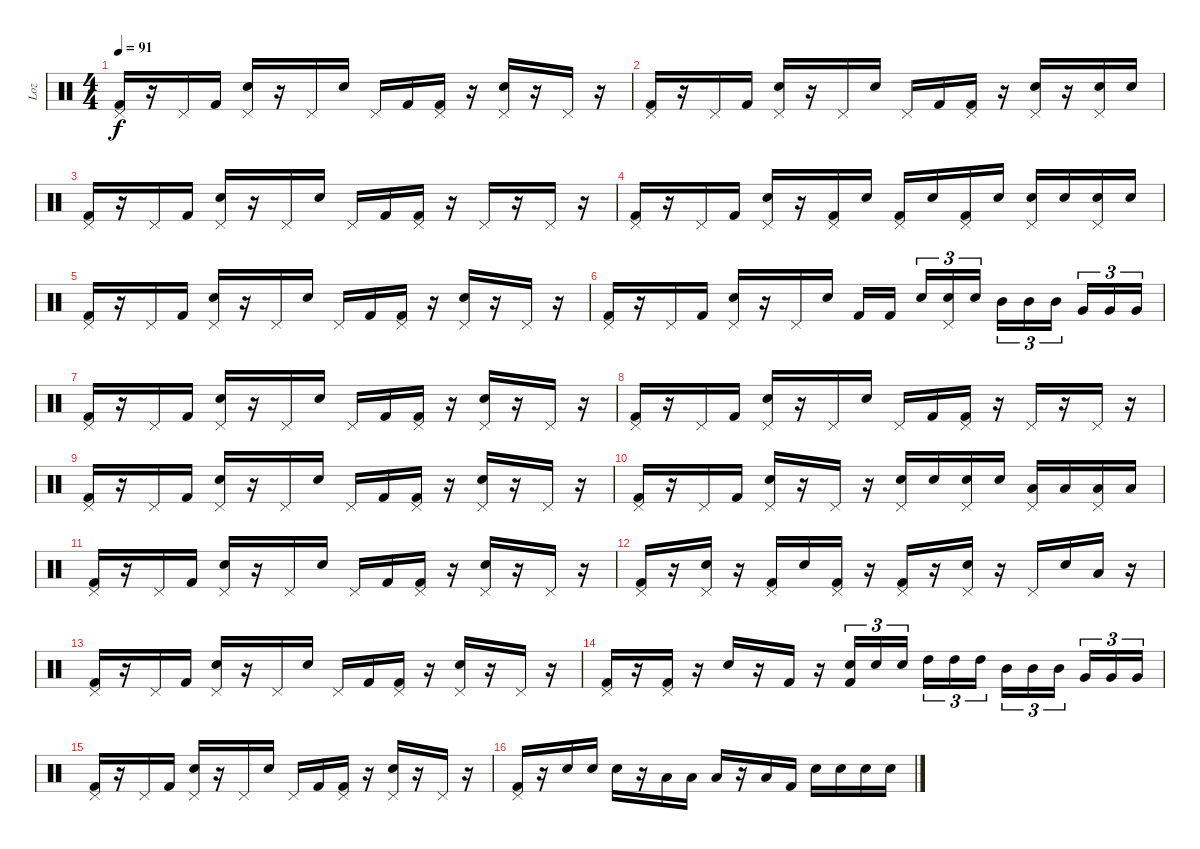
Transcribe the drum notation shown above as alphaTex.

\track ("Loz" "Loz") {instrument percussion}
\staff {score}
\articulation defaults
\ts (4 4)
\tempo 91
\clef neutral
\ks c
("Pedal Hi-Hat (hit)" "Kick (hit) 2").16{dy f} r.16 "Pedal Hi-Hat (hit)".16 "Kick (hit) 2".16 ("Pedal Hi-Hat (hit)" "Electric Snare (hit)").16 r.16 "Pedal Hi-Hat (hit)".16 "Electric Snare (hit)".16 "Pedal Hi-Hat (hit)".16 "Kick (hit) 2".16 ("Pedal Hi-Hat (hit)" "Kick (hit) 2").16 r.16 ("Pedal Hi-Hat (hit)" "Electric Snare (hit)").16 r.16 "Pedal Hi-Hat (hit)".16 r.16 |
("Pedal Hi-Hat (hit)" "Kick (hit) 2").16 r.16 "Pedal Hi-Hat (hit)".16 "Kick (hit) 2".16 ("Pedal Hi-Hat (hit)" "Electric Snare (hit)").16 r.16 "Pedal Hi-Hat (hit)".16 "Electric Snare (hit)".16 "Pedal Hi-Hat (hit)".16 "Kick (hit) 2".16 ("Pedal Hi-Hat (hit)" "Kick (hit) 2").16 r.16 ("Pedal Hi-Hat (hit)" "Electric Snare (hit)").16 r.16 ("Pedal Hi-Hat (hit)" "Electric Snare (hit)").16 "Electric Snare (hit)".16 |
("Pedal Hi-Hat (hit)" "Kick (hit) 2").16 r.16 "Pedal Hi-Hat (hit)".16 "Kick (hit) 2".16 ("Pedal Hi-Hat (hit)" "Electric Snare (hit)").16 r.16 "Pedal Hi-Hat (hit)".16 "Electric Snare (hit)".16 "Pedal Hi-Hat (hit)".16 "Kick (hit) 2".16 ("Pedal Hi-Hat (hit)" "Kick (hit) 2").16 r.16 "Pedal Hi-Hat (hit)".16 r.16 "Pedal Hi-Hat (hit)".16 r.16 |
("Pedal Hi-Hat (hit)" "Kick (hit) 2").16 r.16 "Pedal Hi-Hat (hit)".16 "Kick (hit) 2".16 ("Pedal Hi-Hat (hit)" "Electric Snare (hit)").16 r.16 ("Pedal Hi-Hat (hit)" "Kick (hit) 2").16 "Electric Snare (hit)".16 ("Pedal Hi-Hat (hit)" "Kick (hit) 2").16 "Electric Snare (hit)".16 ("Pedal Hi-Hat (hit)" "Kick (hit) 2").16 "Electric Snare (hit)".16 ("Pedal Hi-Hat (hit)" "Electric Snare (hit)").16 "Electric Snare (hit)".16 ("Pedal Hi-Hat (hit)" "Electric Snare (hit)").16 "Electric Snare (hit)".16 |
("Pedal Hi-Hat (hit)" "Kick (hit) 2").16 r.16 "Pedal Hi-Hat (hit)".16 "Kick (hit) 2".16 ("Pedal Hi-Hat (hit)" "Electric Snare (hit)").16 r.16 "Pedal Hi-Hat (hit)".16 "Electric Snare (hit)".16 "Pedal Hi-Hat (hit)".16 "Kick (hit) 2".16 ("Pedal Hi-Hat (hit)" "Kick (hit) 2").16 r.16 ("Pedal Hi-Hat (hit)" "Electric Snare (hit)").16 r.16 "Pedal Hi-Hat (hit)".16 r.16 |
("Pedal Hi-Hat (hit)" "Kick (hit) 2").16 r.16 "Pedal Hi-Hat (hit)".16 "Kick (hit) 2".16 ("Pedal Hi-Hat (hit)" "Electric Snare (hit)").16 r.16 "Pedal Hi-Hat (hit)".16 "Electric Snare (hit)".16 "Kick (hit) 2".16 "Kick (hit) 2".16 "Electric Snare (hit)".16{tu (3 2)} ("Pedal Hi-Hat (hit)" "Electric Snare (hit)").16{tu (3 2)} "Electric Snare (hit)".16{tu (3 2)} "Mid Tom (hit)".16{tu (3 2)} "Mid Tom (hit)".16{tu (3 2)} "Mid Tom (hit)".16{tu (3 2)} "Very Low Tom (hit)".16{tu (3 2)} "Very Low Tom (hit)".16{tu (3 2)} "Very Low Tom (hit)".16{tu (3 2)} |
("Pedal Hi-Hat (hit)" "Kick (hit) 2").16 r.16 "Pedal Hi-Hat (hit)".16 "Kick (hit) 2".16 ("Pedal Hi-Hat (hit)" "Electric Snare (hit)").16 r.16 "Pedal Hi-Hat (hit)".16 "Electric Snare (hit)".16 "Pedal Hi-Hat (hit)".16 "Kick (hit) 2".16 ("Pedal Hi-Hat (hit)" "Kick (hit) 2").16 r.16 ("Pedal Hi-Hat (hit)" "Electric Snare (hit)").16 r.16 "Pedal Hi-Hat (hit)".16 r.16 |
("Pedal Hi-Hat (hit)" "Kick (hit) 2").16 r.16 "Pedal Hi-Hat (hit)".16 "Kick (hit) 2".16 ("Pedal Hi-Hat (hit)" "Electric Snare (hit)").16 r.16 "Pedal Hi-Hat (hit)".16 "Electric Snare (hit)".16 "Pedal Hi-Hat (hit)".16 "Kick (hit) 2".16 ("Pedal Hi-Hat (hit)" "Kick (hit) 2").16 r.16 "Pedal Hi-Hat (hit)".16 r.16 "Pedal Hi-Hat (hit)".16 r.16 |
("Pedal Hi-Hat (hit)" "Kick (hit) 2").16 r.16 "Pedal Hi-Hat (hit)".16 "Kick (hit) 2".16 ("Pedal Hi-Hat (hit)" "Electric Snare (hit)").16 r.16 "Pedal Hi-Hat (hit)".16 "Electric Snare (hit)".16 "Pedal Hi-Hat (hit)".16 "Kick (hit) 2".16 ("Pedal Hi-Hat (hit)" "Kick (hit) 2").16 r.16 ("Pedal Hi-Hat (hit)" "Electric Snare (hit)").16 r.16 "Pedal Hi-Hat (hit)".16 r.16 |
("Pedal Hi-Hat (hit)" "Kick (hit) 2").16 r.16 "Pedal Hi-Hat (hit)".16 "Kick (hit) 2".16 ("Pedal Hi-Hat (hit)" "Electric Snare (hit)").16 r.16 "Pedal Hi-Hat (hit)".16 r.16 ("Pedal Hi-Hat (hit)" "Electric Snare (hit)").16 "Electric Snare (hit)".16 ("Pedal Hi-Hat (hit)" "Electric Snare (hit)").16 "Electric Snare (hit)".16 ("Pedal Hi-Hat (hit)" "Low Tom (hit)").16 "Low Tom (hit)".16 ("Pedal Hi-Hat (hit)" "Low Tom (hit)").16 "Low Tom (hit)".16 |
("Pedal Hi-Hat (hit)" "Kick (hit) 2").16 r.16 "Pedal Hi-Hat (hit)".16 "Kick (hit) 2".16 ("Pedal Hi-Hat (hit)" "Electric Snare (hit)").16 r.16 "Pedal Hi-Hat (hit)".16 "Electric Snare (hit)".16 "Pedal Hi-Hat (hit)".16 "Kick (hit) 2".16 ("Pedal Hi-Hat (hit)" "Kick (hit) 2").16 r.16 ("Pedal Hi-Hat (hit)" "Electric Snare (hit)").16 r.16 "Pedal Hi-Hat (hit)".16 r.16 |
("Pedal Hi-Hat (hit)" "Kick (hit) 2").16 r.16 ("Pedal Hi-Hat (hit)" "Electric Snare (hit)").16 r.16 ("Pedal Hi-Hat (hit)" "Kick (hit) 2").16 "Electric Snare (hit)".16 ("Pedal Hi-Hat (hit)" "Kick (hit) 2").16 r.16 ("Pedal Hi-Hat (hit)" "Kick (hit) 2").16 r.16 ("Pedal Hi-Hat (hit)" "Electric Snare (hit)").16 r.16 "Pedal Hi-Hat (hit)".16 "Electric Snare (hit)".16 "Low Tom (hit)".16 r.16 |
("Pedal Hi-Hat (hit)" "Kick (hit) 2").16 r.16 "Pedal Hi-Hat (hit)".16 "Kick (hit) 2".16 ("Pedal Hi-Hat (hit)" "Electric Snare (hit)").16 r.16 "Pedal Hi-Hat (hit)".16 "Electric Snare (hit)".16 "Pedal Hi-Hat (hit)".16 "Kick (hit) 2".16 ("Pedal Hi-Hat (hit)" "Kick (hit) 2").16 r.16 ("Pedal Hi-Hat (hit)" "Electric Snare (hit)").16 r.16 "Pedal Hi-Hat (hit)".16 r.16 |
("Pedal Hi-Hat (hit)" "Kick (hit) 2").16 r.16 ("Pedal Hi-Hat (hit)" "Kick (hit) 2").16 r.16 "Electric Snare (hit)".16 r.16 "Kick (hit) 2".16 r.16 ("Electric Snare (hit)" "Kick (hit) 2").16{tu (3 2)} "Electric Snare (hit)".16{tu (3 2)} "Electric Snare (hit)".16{tu (3 2)} "High Tom (hit)".16{tu (3 2)} "High Tom (hit)".16{tu (3 2)} "High Tom (hit)".16{tu (3 2)} "Mid Tom (hit)".16{tu (3 2)} "Mid Tom (hit)".16{tu (3 2)} "Mid Tom (hit)".16{tu (3 2)} "Very Low Tom (hit)".16{tu (3 2)} "Very Low Tom (hit)".16{tu (3 2)} "Very Low Tom (hit)".16{tu (3 2)} |
("Pedal Hi-Hat (hit)" "Kick (hit) 2").16 r.16 "Pedal Hi-Hat (hit)".16 "Kick (hit) 2".16 ("Pedal Hi-Hat (hit)" "Electric Snare (hit)").16 r.16 "Pedal Hi-Hat (hit)".16 "Electric Snare (hit)".16 "Pedal Hi-Hat (hit)".16 "Kick (hit) 2".16 ("Pedal Hi-Hat (hit)" "Kick (hit) 2").16 r.16 ("Pedal Hi-Hat (hit)" "Electric Snare (hit)").16 r.16 "Pedal Hi-Hat (hit)".16 r.16 |
("Pedal Hi-Hat (hit)" "Kick (hit) 2").16 r.16 "Electric Snare (hit)".16 "Electric Snare (hit)".16 "Electric Snare (hit)".16 r.16 "Low Tom (hit)".16 "Low Tom (hit)".16 "Low Tom (hit)".16 r.16 "Low Tom (hit)".16 "Kick (hit) 2".16 "Electric Snare (hit)".16 "Electric Snare (hit)".16 "Electric Snare (hit)".16 "Electric Snare (hit)".16
